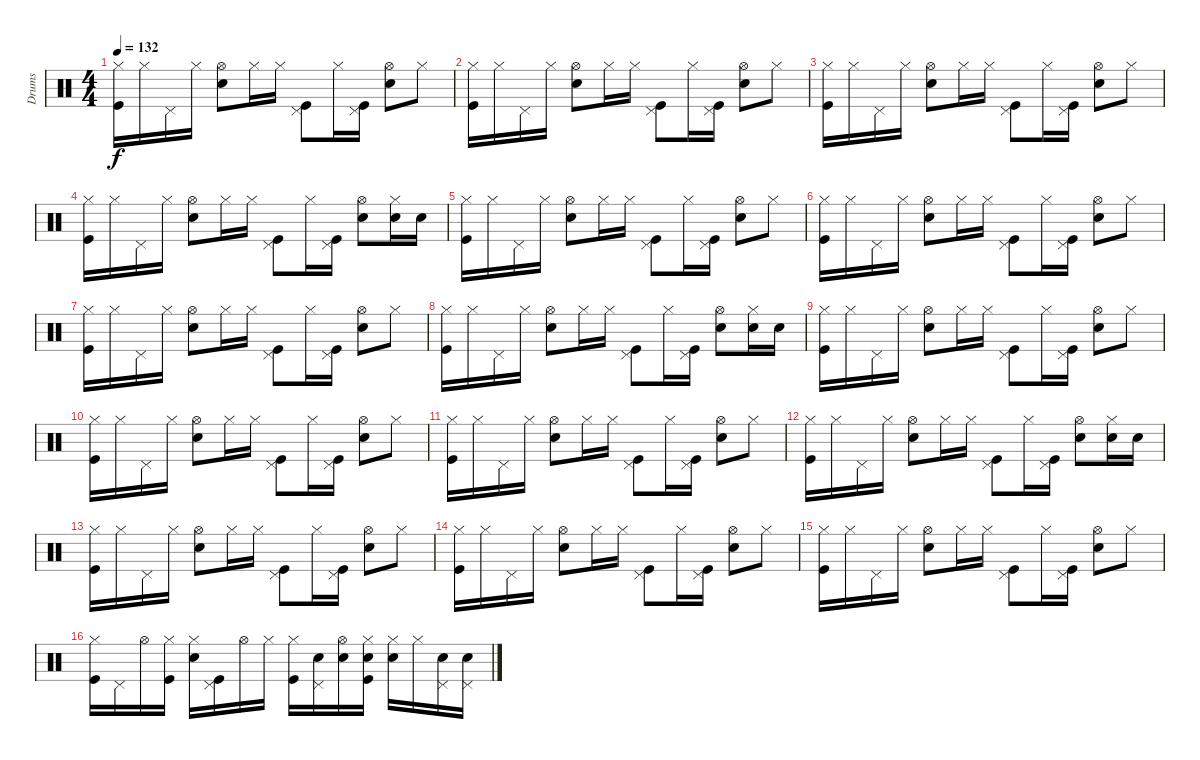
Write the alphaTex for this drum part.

\track ("Drums" "Drums") {instrument percussion}
\staff {score}
\articulation defaults
\ts (4 4)
\tempo 132
\clef neutral
\ks c
("Hi-Hat (closed)" "Kick (hit)").16{dy f} "Hi-Hat (closed)".16 "Pedal Hi-Hat (hit)".16 "Hi-Hat (closed)".16 ("Hi-Hat (open)" "Snare (hit) 2").8 "Hi-Hat (closed)".16 "Hi-Hat (closed)".16 ("Pedal Hi-Hat (hit)" "Kick (hit)").8 "Hi-Hat (closed)".16 ("Pedal Hi-Hat (hit)" "Kick (hit)").16 ("Hi-Hat (open)" "Snare (hit) 2").8 "Hi-Hat (closed)".8 |
("Hi-Hat (closed)" "Kick (hit)").16 "Hi-Hat (closed)".16 "Pedal Hi-Hat (hit)".16 "Hi-Hat (closed)".16 ("Hi-Hat (open)" "Snare (hit) 2").8 "Hi-Hat (closed)".16 "Hi-Hat (closed)".16 ("Pedal Hi-Hat (hit)" "Kick (hit)").8 "Hi-Hat (closed)".16 ("Pedal Hi-Hat (hit)" "Kick (hit)").16 ("Hi-Hat (open)" "Snare (hit) 2").8 "Hi-Hat (closed)".8 |
("Hi-Hat (closed)" "Kick (hit)").16 "Hi-Hat (closed)".16 "Pedal Hi-Hat (hit)".16 "Hi-Hat (closed)".16 ("Hi-Hat (open)" "Snare (hit) 2").8 "Hi-Hat (closed)".16 "Hi-Hat (closed)".16 ("Pedal Hi-Hat (hit)" "Kick (hit)").8 "Hi-Hat (closed)".16 ("Pedal Hi-Hat (hit)" "Kick (hit)").16 ("Hi-Hat (open)" "Snare (hit) 2").8 "Hi-Hat (closed)".8 |
("Hi-Hat (closed)" "Kick (hit)").16 "Hi-Hat (closed)".16 "Pedal Hi-Hat (hit)".16 "Hi-Hat (closed)".16 ("Hi-Hat (open)" "Snare (hit) 2").8 "Hi-Hat (closed)".16 "Hi-Hat (closed)".16 ("Pedal Hi-Hat (hit)" "Kick (hit)").8 "Hi-Hat (closed)".16 ("Pedal Hi-Hat (hit)" "Kick (hit)").16 ("Hi-Hat (open)" "Snare (hit) 2").8 ("Hi-Hat (closed)" "Snare (hit) 2").16 "Snare (hit) 2".16 |
("Hi-Hat (closed)" "Kick (hit)").16 "Hi-Hat (closed)".16 "Pedal Hi-Hat (hit)".16 "Hi-Hat (closed)".16 ("Hi-Hat (open)" "Snare (hit) 2").8 "Hi-Hat (closed)".16 "Hi-Hat (closed)".16 ("Pedal Hi-Hat (hit)" "Kick (hit)").8 "Hi-Hat (closed)".16 ("Pedal Hi-Hat (hit)" "Kick (hit)").16 ("Hi-Hat (open)" "Snare (hit) 2").8 "Hi-Hat (closed)".8 |
("Hi-Hat (closed)" "Kick (hit)").16 "Hi-Hat (closed)".16 "Pedal Hi-Hat (hit)".16 "Hi-Hat (closed)".16 ("Hi-Hat (open)" "Snare (hit) 2").8 "Hi-Hat (closed)".16 "Hi-Hat (closed)".16 ("Pedal Hi-Hat (hit)" "Kick (hit)").8 "Hi-Hat (closed)".16 ("Pedal Hi-Hat (hit)" "Kick (hit)").16 ("Hi-Hat (open)" "Snare (hit) 2").8 "Hi-Hat (closed)".8 |
("Hi-Hat (closed)" "Kick (hit)").16 "Hi-Hat (closed)".16 "Pedal Hi-Hat (hit)".16 "Hi-Hat (closed)".16 ("Hi-Hat (open)" "Snare (hit) 2").8 "Hi-Hat (closed)".16 "Hi-Hat (closed)".16 ("Pedal Hi-Hat (hit)" "Kick (hit)").8 "Hi-Hat (closed)".16 ("Pedal Hi-Hat (hit)" "Kick (hit)").16 ("Hi-Hat (open)" "Snare (hit) 2").8 "Hi-Hat (closed)".8 |
("Hi-Hat (closed)" "Kick (hit)").16 "Hi-Hat (closed)".16 "Pedal Hi-Hat (hit)".16 "Hi-Hat (closed)".16 ("Hi-Hat (open)" "Snare (hit) 2").8 "Hi-Hat (closed)".16 "Hi-Hat (closed)".16 ("Pedal Hi-Hat (hit)" "Kick (hit)").8 "Hi-Hat (closed)".16 ("Pedal Hi-Hat (hit)" "Kick (hit)").16 ("Hi-Hat (open)" "Snare (hit) 2").8 ("Hi-Hat (closed)" "Snare (hit) 2").16 "Snare (hit) 2".16 |
("Hi-Hat (closed)" "Kick (hit)").16 "Hi-Hat (closed)".16 "Pedal Hi-Hat (hit)".16 "Hi-Hat (closed)".16 ("Hi-Hat (open)" "Snare (hit) 2").8 "Hi-Hat (closed)".16 "Hi-Hat (closed)".16 ("Pedal Hi-Hat (hit)" "Kick (hit)").8 "Hi-Hat (closed)".16 ("Pedal Hi-Hat (hit)" "Kick (hit)").16 ("Hi-Hat (open)" "Snare (hit) 2").8 "Hi-Hat (closed)".8 |
("Hi-Hat (closed)" "Kick (hit)").16 "Hi-Hat (closed)".16 "Pedal Hi-Hat (hit)".16 "Hi-Hat (closed)".16 ("Hi-Hat (open)" "Snare (hit) 2").8 "Hi-Hat (closed)".16 "Hi-Hat (closed)".16 ("Pedal Hi-Hat (hit)" "Kick (hit)").8 "Hi-Hat (closed)".16 ("Pedal Hi-Hat (hit)" "Kick (hit)").16 ("Hi-Hat (open)" "Snare (hit) 2").8 "Hi-Hat (closed)".8 |
("Hi-Hat (closed)" "Kick (hit)").16 "Hi-Hat (closed)".16 "Pedal Hi-Hat (hit)".16 "Hi-Hat (closed)".16 ("Hi-Hat (open)" "Snare (hit) 2").8 "Hi-Hat (closed)".16 "Hi-Hat (closed)".16 ("Pedal Hi-Hat (hit)" "Kick (hit)").8 "Hi-Hat (closed)".16 ("Pedal Hi-Hat (hit)" "Kick (hit)").16 ("Hi-Hat (open)" "Snare (hit) 2").8 "Hi-Hat (closed)".8 |
("Hi-Hat (closed)" "Kick (hit)").16 "Hi-Hat (closed)".16 "Pedal Hi-Hat (hit)".16 "Hi-Hat (closed)".16 ("Hi-Hat (open)" "Snare (hit) 2").8 "Hi-Hat (closed)".16 "Hi-Hat (closed)".16 ("Pedal Hi-Hat (hit)" "Kick (hit)").8 "Hi-Hat (closed)".16 ("Pedal Hi-Hat (hit)" "Kick (hit)").16 ("Hi-Hat (open)" "Snare (hit) 2").8 ("Hi-Hat (closed)" "Snare (hit) 2").16 "Snare (hit) 2".16 |
("Hi-Hat (closed)" "Kick (hit)").16 "Hi-Hat (closed)".16 "Pedal Hi-Hat (hit)".16 "Hi-Hat (closed)".16 ("Hi-Hat (open)" "Snare (hit) 2").8 "Hi-Hat (closed)".16 "Hi-Hat (closed)".16 ("Pedal Hi-Hat (hit)" "Kick (hit)").8 "Hi-Hat (closed)".16 ("Pedal Hi-Hat (hit)" "Kick (hit)").16 ("Hi-Hat (open)" "Snare (hit) 2").8 "Hi-Hat (closed)".8 |
("Hi-Hat (closed)" "Kick (hit)").16 "Hi-Hat (closed)".16 "Pedal Hi-Hat (hit)".16 "Hi-Hat (closed)".16 ("Hi-Hat (open)" "Snare (hit) 2").8 "Hi-Hat (closed)".16 "Hi-Hat (closed)".16 ("Pedal Hi-Hat (hit)" "Kick (hit)").8 "Hi-Hat (closed)".16 ("Pedal Hi-Hat (hit)" "Kick (hit)").16 ("Hi-Hat (open)" "Snare (hit) 2").8 "Hi-Hat (closed)".8 |
("Hi-Hat (closed)" "Kick (hit)").16 "Hi-Hat (closed)".16 "Pedal Hi-Hat (hit)".16 "Hi-Hat (closed)".16 ("Hi-Hat (open)" "Snare (hit) 2").8 "Hi-Hat (closed)".16 "Hi-Hat (closed)".16 ("Pedal Hi-Hat (hit)" "Kick (hit)").8 "Hi-Hat (closed)".16 ("Pedal Hi-Hat (hit)" "Kick (hit)").16 ("Hi-Hat (open)" "Snare (hit) 2").8 "Hi-Hat (closed)".8 |
("Hi-Hat (closed)" "Kick (hit)").16 "Pedal Hi-Hat (hit)".16 "Hi-Hat (open)".16 ("Hi-Hat (closed)" "Kick (hit)").16 ("Hi-Hat (closed)" "Snare (hit) 2").16 ("Pedal Hi-Hat (hit)" "Kick (hit)").16 "Hi-Hat (open)".16 "Hi-Hat (closed)".16 ("Hi-Hat (closed)" "Kick (hit)").16 ("Pedal Hi-Hat (hit)" "Snare (hit) 2").16 ("Hi-Hat (open)" "Snare (hit) 2").16 ("Hi-Hat (closed)" "Snare (hit) 2" "Kick (hit)").16 ("Hi-Hat (closed)" "Snare (hit) 2").16 "Hi-Hat (closed)".16 ("Pedal Hi-Hat (hit)" "Snare (hit) 2").16 ("Pedal Hi-Hat (hit)" "Snare (hit) 2").16
